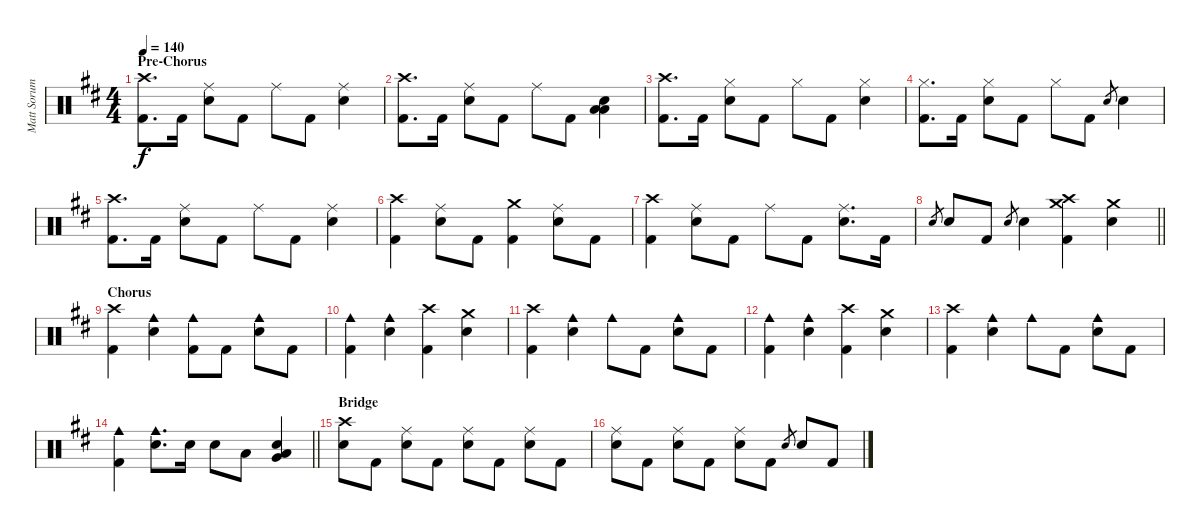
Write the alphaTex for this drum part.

\track ("Matt Sorum - Drums" "Matt Sorum") {instrument percussion}
\staff {score}
\articulation defaults
\ts (4 4)
\section ("" "Pre-Chorus")
\tempo 140
\clef neutral
\ks d
("Crash high (hit)" "Kick (hit) 2").8{d dy f} "Kick (hit) 2".16 ("Ride (middle)" "Snare (hit) 2").8 "Kick (hit) 2".8 "Ride (middle)".8 "Kick (hit) 2".8 ("Ride (middle)" "Snare (hit) 2").4 |
("Crash high (hit)" "Kick (hit) 2").8{d} "Kick (hit) 2".16 ("Ride (middle)" "Snare (hit) 2").8 "Kick (hit) 2".8 "Ride (middle)".8 "Kick (hit) 2".8 ("Low Tom (hit)" "Low Tom (hit)" "Snare (hit) 2").4 |
("Crash high (hit)" "Kick (hit) 2").8{d} "Kick (hit) 2".16 ("Hi-Hat (closed)" "Snare (hit) 2").8 "Kick (hit) 2".8 "Hi-Hat (closed)".8 "Kick (hit) 2".8 ("Hi-Hat (closed)" "Snare (hit) 2").4 |
("Hi-Hat (closed)" "Kick (hit) 2").8{d} "Kick (hit) 2".16 ("Hi-Hat (closed)" "Snare (hit) 2").8 "Kick (hit) 2".8 "Hi-Hat (closed)".8 "Kick (hit) 2".8 "Snare (hit) 2".8{gr} "Snare (hit) 2".4 |
("Crash high (hit)" "Kick (hit) 2").8{d} "Kick (hit) 2".16 ("Ride (middle)" "Snare (hit) 2").8 "Kick (hit) 2".8 "Ride (middle)".8 "Kick (hit) 2".8 ("Ride (middle)" "Snare (hit) 2").4 |
("Crash high (hit)" "Kick (hit) 2").4 ("Ride (middle)" "Snare (hit) 2").8 "Kick (hit) 2".8 ("Crash medium (hit)" "Kick (hit) 2").4 ("Ride (middle)" "Snare (hit) 2").8 "Kick (hit) 2".8 |
("Crash high (hit)" "Kick (hit) 2").4 ("Ride (middle)" "Snare (hit) 2").8 "Kick (hit) 2".8 "Ride (middle)".8 "Kick (hit) 2".8 ("Ride (middle)" "Snare (hit) 2").8{d} "Kick (hit) 2".16 |
\barLineRight lightlight "Snare (hit) 2".8{gr} "Snare (hit) 2".8 "Kick (hit) 2".8 "Snare (hit) 2".8{gr} "Snare (hit) 2".4
("Crash medium (hit)" "Crash high (hit)" "Kick (hit) 2").4 ("Crash medium (hit)" "Snare (hit) 2").4 |
\section ("" "Chorus")
("Crash high (hit)" "Kick (hit) 2").4 ("Cowbell medium (hit)" "Snare (hit) 2").4 ("Cowbell medium (hit)" "Kick (hit) 2").8 "Kick (hit) 2".8 ("Cowbell medium (hit)" "Snare (hit) 2").8 "Kick (hit) 2".8 |
("Cowbell medium (hit)" "Kick (hit) 2").4 ("Cowbell medium (hit)" "Snare (hit) 2").4 ("Crash high (hit)" "Kick (hit) 2").4 ("Crash medium (hit)" "Snare (hit) 2").4 |
("Crash high (hit)" "Kick (hit) 2").4 ("Cowbell medium (hit)" "Snare (hit) 2").4 "Cowbell medium (hit)".8 "Kick (hit) 2".8 ("Cowbell medium (hit)" "Snare (hit) 2").8 "Kick (hit) 2".8 |
("Cowbell medium (hit)" "Kick (hit) 2").4 ("Cowbell medium (hit)" "Snare (hit) 2").4 ("Crash high (hit)" "Kick (hit) 2").4 ("Crash medium (hit)" "Snare (hit) 2").4 |
("Crash high (hit)" "Kick (hit) 2").4 ("Cowbell medium (hit)" "Snare (hit) 2").4 "Cowbell medium (hit)".8 "Kick (hit) 2".8 ("Cowbell medium (hit)" "Snare (hit) 2").8 "Kick (hit) 2".8 |
\barLineRight lightlight
("Cowbell medium (hit)" "Kick (hit) 2").4 ("Cowbell medium (hit)" "Snare (hit) 2").8{d} "Snare (hit) 2".16 "Snare (hit) 2".8 "Low Tom (hit)".8 ("Very Low Tom (hit)" "Low Tom (hit)" "Snare (hit) 2").4 |
\section ("" "Bridge")
("Crash high (hit)" "Snare (hit) 2").8 "Kick (hit) 2".8 ("Ride (middle)" "Snare (hit) 2").8 "Kick (hit) 2".8 ("Ride (middle)" "Snare (hit) 2").8 "Kick (hit) 2".8 ("Ride (middle)" "Snare (hit) 2").8 "Kick (hit) 2".8 |
("Ride (middle)" "Snare (hit) 2").8 "Kick (hit) 2".8 ("Ride (middle)" "Snare (hit) 2").8 "Kick (hit) 2".8 ("Ride (middle)" "Snare (hit) 2").8 "Kick (hit) 2".8 "Snare (hit) 2".8{gr} "Snare (hit) 2".8 "Kick (hit) 2".8
